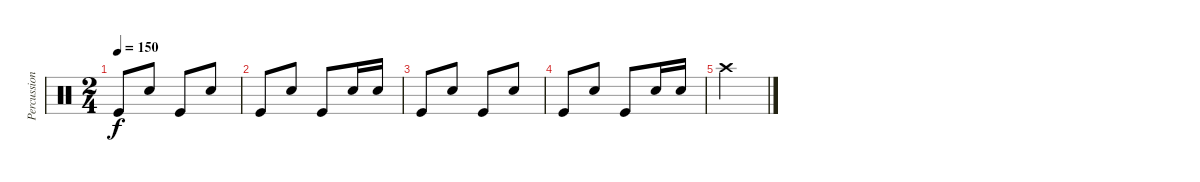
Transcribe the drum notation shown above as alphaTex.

\track ("Percussions" "Percussion") {instrument percussion}
\staff {score}
\articulation defaults
\ts (2 4)
\tempo 150
\clef neutral
\ks c "Kick (hit)".8{dy f} "Electric Snare (hit)".8 "Kick (hit)".8 "Electric Snare (hit)".8
|
"Kick (hit)".8 "Electric Snare (hit)".8 "Kick (hit)".8 "Electric Snare (hit)".16 "Electric Snare (hit)".16 |
"Kick (hit)".8 "Electric Snare (hit)".8 "Kick (hit)".8 "Electric Snare (hit)".8 |
"Kick (hit)".8 "Electric Snare (hit)".8 "Kick (hit)".8 "Electric Snare (hit)".16 "Electric Snare (hit)".16 |
"Crash high (hit)".2
